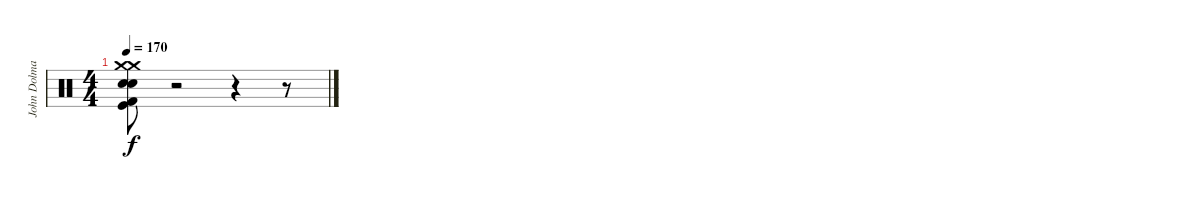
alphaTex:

\track ("John Dolmayan" "John Dolma") {instrument percussion}
\staff {score}
\articulation defaults
\ts (4 4)
\tempo 170
\clef neutral
\ks c
("Crash medium (hit)" "Kick (hit) 2" "Snare (hit) 2" "Kick (hit)" "Electric Snare (hit)" "Crash medium (hit)").8{dy f} r.2 r.4 r.8
